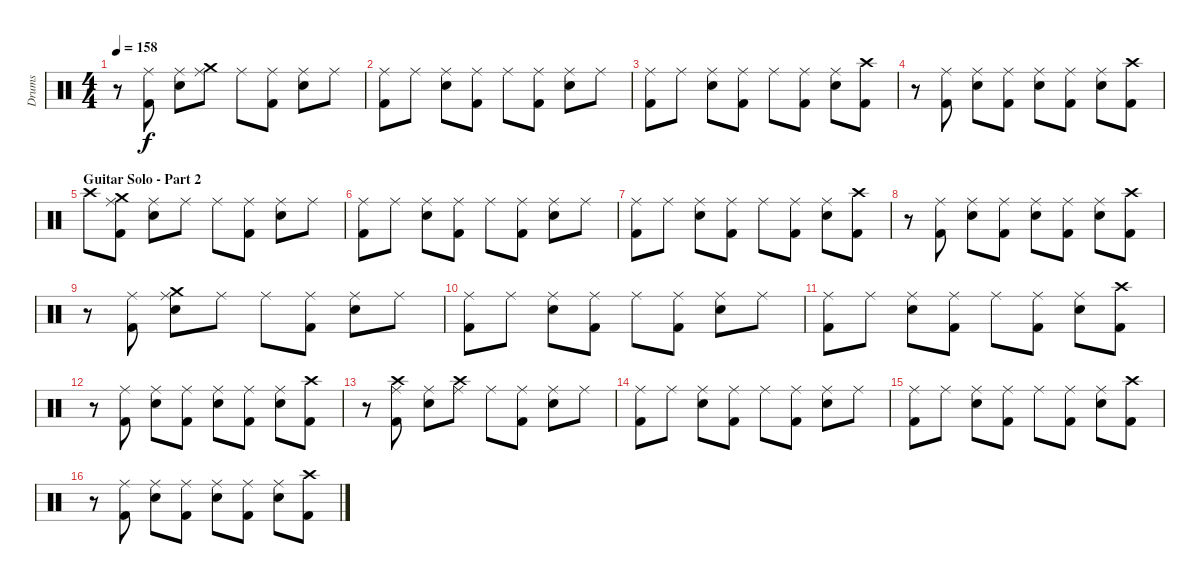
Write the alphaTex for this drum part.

\track ("Drums" "Drums") {instrument percussion}
\staff {score}
\articulation defaults
\ts (4 4)
\tempo 158
\clef neutral
\ks c
r.8{dy f} ("Ride (middle)" "Kick (hit) 2").8 ("Ride (middle)" "Snare (hit) 2").8 ("Crash medium (hit)" "Ride (middle)").8 "Ride (middle)".8 ("Ride (middle)" "Kick (hit) 2").8 ("Ride (middle)" "Snare (hit) 2").8 "Ride (middle)".8 |
("Ride (middle)" "Kick (hit) 2").8 "Ride (middle)".8 ("Ride (middle)" "Snare (hit) 2").8 ("Ride (middle)" "Kick (hit) 2").8 "Ride (middle)".8 ("Ride (middle)" "Kick (hit) 2").8 ("Ride (middle)" "Snare (hit) 2").8 "Ride (middle)".8 |
("Ride (middle)" "Kick (hit) 2").8 "Ride (middle)".8 ("Ride (middle)" "Snare (hit) 2").8 ("Ride (middle)" "Kick (hit) 2").8 "Ride (middle)".8 ("Ride (middle)" "Kick (hit) 2").8 ("Ride (middle)" "Snare (hit) 2").8 ("Crash high (hit)" "Kick (hit) 2").8 |
r.8 ("Ride (middle)" "Kick (hit) 2").8 ("Ride (middle)" "Snare (hit) 2").8 ("Ride (middle)" "Kick (hit) 2").8 ("Ride (middle)" "Snare (hit) 2").8 ("Ride (middle)" "Kick (hit) 2").8 ("Ride (middle)" "Snare (hit) 2").8 ("Crash high (hit)" "Kick (hit) 2").8 |
\section ("" "Guitar Solo - Part 2")
"Crash high (hit)".8 ("Crash medium (hit)" "Ride (middle)" "Kick (hit) 2").8 ("Ride (middle)" "Snare (hit) 2").8 "Ride (middle)".8 "Ride (middle)".8 ("Ride (middle)" "Kick (hit) 2").8 ("Ride (middle)" "Snare (hit) 2").8 "Ride (middle)".8 |
("Ride (middle)" "Kick (hit) 2").8 "Ride (middle)".8 ("Ride (middle)" "Snare (hit) 2").8 ("Ride (middle)" "Kick (hit) 2").8 "Ride (middle)".8 ("Ride (middle)" "Kick (hit) 2").8 ("Ride (middle)" "Snare (hit) 2").8 "Ride (middle)".8 |
("Ride (middle)" "Kick (hit) 2").8 "Ride (middle)".8 ("Ride (middle)" "Snare (hit) 2").8 ("Ride (middle)" "Kick (hit) 2").8 "Ride (middle)".8 ("Ride (middle)" "Kick (hit) 2").8 ("Ride (middle)" "Snare (hit) 2").8 ("Crash high (hit)" "Kick (hit) 2").8 |
r.8 ("Ride (middle)" "Kick (hit) 2").8 ("Ride (middle)" "Snare (hit) 2").8 ("Ride (middle)" "Kick (hit) 2").8 ("Ride (middle)" "Snare (hit) 2").8 ("Ride (middle)" "Kick (hit) 2").8 ("Ride (middle)" "Snare (hit) 2").8 ("Crash high (hit)" "Kick (hit) 2").8 |
r.8 ("Ride (middle)" "Kick (hit) 2").8 ("Crash medium (hit)" "Ride (middle)" "Snare (hit) 2").8 "Ride (middle)".8 "Ride (middle)".8 ("Ride (middle)" "Kick (hit) 2").8 ("Ride (middle)" "Snare (hit) 2").8 "Ride (middle)".8 |
("Ride (middle)" "Kick (hit) 2").8 "Ride (middle)".8 ("Ride (middle)" "Snare (hit) 2").8 ("Ride (middle)" "Kick (hit) 2").8 "Ride (middle)".8 ("Ride (middle)" "Kick (hit) 2").8 ("Ride (middle)" "Snare (hit) 2").8 "Ride (middle)".8 |
("Ride (middle)" "Kick (hit) 2").8 "Ride (middle)".8 ("Ride (middle)" "Snare (hit) 2").8 ("Ride (middle)" "Kick (hit) 2").8 "Ride (middle)".8 ("Ride (middle)" "Kick (hit) 2").8 ("Ride (middle)" "Snare (hit) 2").8 ("Crash high (hit)" "Kick (hit) 2").8 |
r.8 ("Ride (middle)" "Kick (hit) 2").8 ("Ride (middle)" "Snare (hit) 2").8 ("Ride (middle)" "Kick (hit) 2").8 ("Ride (middle)" "Snare (hit) 2").8 ("Ride (middle)" "Kick (hit) 2").8 ("Ride (middle)" "Snare (hit) 2").8 ("Crash high (hit)" "Kick (hit) 2").8 |
r.8 ("Crash high (hit)" "Ride (middle)" "Kick (hit) 2").8 ("Ride (middle)" "Snare (hit) 2").8 ("Crash high (hit)" "Ride (middle)").8 "Ride (middle)".8 ("Ride (middle)" "Kick (hit) 2").8 ("Ride (middle)" "Snare (hit) 2").8 "Ride (middle)".8 |
("Ride (middle)" "Kick (hit) 2").8 "Ride (middle)".8 ("Ride (middle)" "Snare (hit) 2").8 ("Ride (middle)" "Kick (hit) 2").8 "Ride (middle)".8 ("Ride (middle)" "Kick (hit) 2").8 ("Ride (middle)" "Snare (hit) 2").8 "Ride (middle)".8 |
("Ride (middle)" "Kick (hit) 2").8 "Ride (middle)".8 ("Ride (middle)" "Snare (hit) 2").8 ("Ride (middle)" "Kick (hit) 2").8 "Ride (middle)".8 ("Ride (middle)" "Kick (hit) 2").8 ("Ride (middle)" "Snare (hit) 2").8 ("Crash high (hit)" "Kick (hit) 2").8 |
r.8 ("Ride (middle)" "Kick (hit) 2").8 ("Ride (middle)" "Snare (hit) 2").8 ("Ride (middle)" "Kick (hit) 2").8 ("Ride (middle)" "Snare (hit) 2").8 ("Ride (middle)" "Kick (hit) 2").8 ("Ride (middle)" "Snare (hit) 2").8 ("Crash high (hit)" "Kick (hit) 2").8
